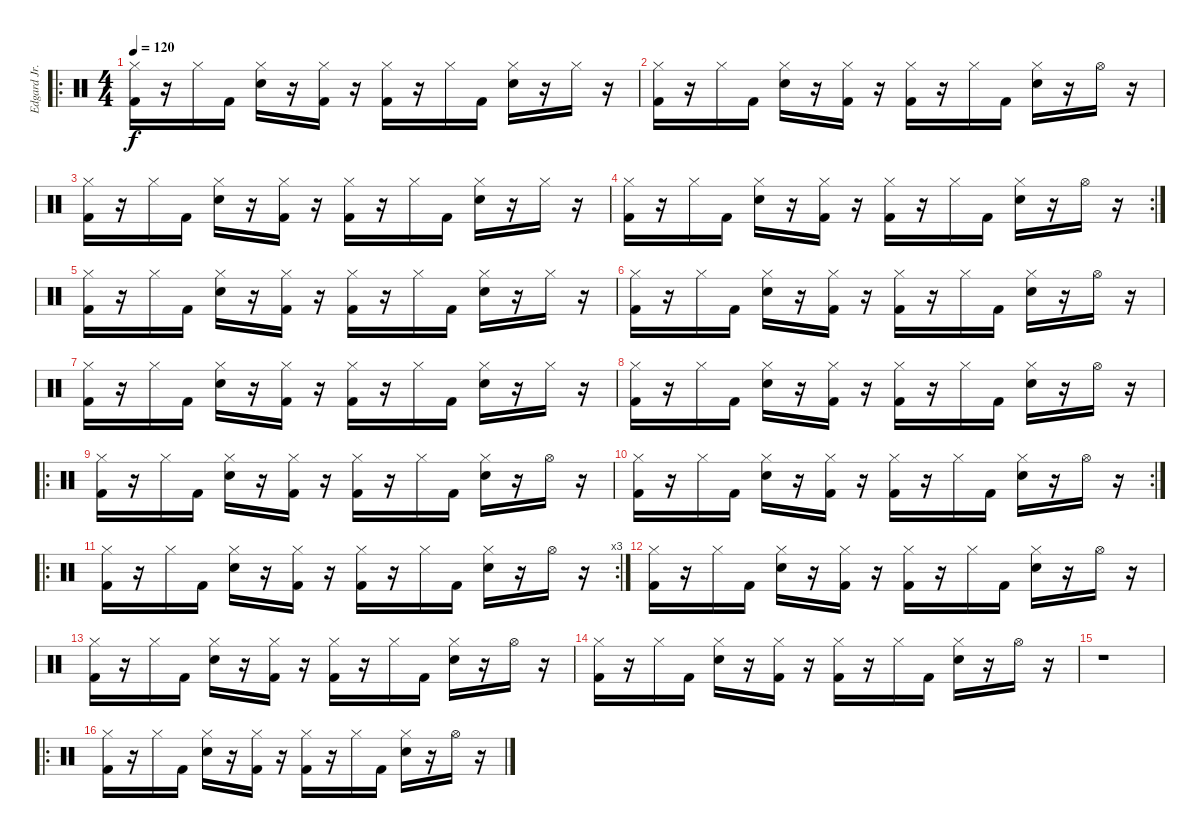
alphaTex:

\track ("Edgard Jr. - ( Drum )" "Edgard Jr.") {instrument percussion}
\staff {score}
\articulation defaults
\ro
\ts (4 4)
\tempo 120
\clef neutral
\ks c
("Kick (hit) 2" "Hi-Hat (closed)").16{dy f} r.16 "Hi-Hat (closed)".16 "Kick (hit) 2".16 ("Electric Snare (hit)" "Hi-Hat (closed)").16 r.16 ("Kick (hit) 2" "Hi-Hat (closed)").16 r.16 ("Kick (hit) 2" "Hi-Hat (closed)").16 r.16 "Hi-Hat (closed)".16 "Kick (hit) 2".16 ("Electric Snare (hit)" "Hi-Hat (closed)").16 r.16 "Hi-Hat (closed)".16 r.16 |
("Hi-Hat (closed)" "Kick (hit) 2").16 r.16 "Hi-Hat (closed)".16 "Kick (hit) 2".16 ("Electric Snare (hit)" "Hi-Hat (closed)").16 r.16 ("Kick (hit) 2" "Hi-Hat (closed)").16 r.16 ("Kick (hit) 2" "Hi-Hat (closed)").16 r.16 "Hi-Hat (closed)".16 "Kick (hit) 2".16 ("Electric Snare (hit)" "Hi-Hat (closed)").16 r.16 "Hi-Hat (open)".16 r.16 |
("Kick (hit) 2" "Hi-Hat (closed)").16 r.16 "Hi-Hat (closed)".16 "Kick (hit) 2".16 ("Electric Snare (hit)" "Hi-Hat (closed)").16 r.16 ("Kick (hit) 2" "Hi-Hat (closed)").16 r.16 ("Kick (hit) 2" "Hi-Hat (closed)").16 r.16 "Hi-Hat (closed)".16 "Kick (hit) 2".16 ("Electric Snare (hit)" "Hi-Hat (closed)").16 r.16 "Hi-Hat (closed)".16 r.16 |
\rc 2
("Hi-Hat (closed)" "Kick (hit) 2").16 r.16 "Hi-Hat (closed)".16 "Kick (hit) 2".16 ("Electric Snare (hit)" "Hi-Hat (closed)").16 r.16 ("Kick (hit) 2" "Hi-Hat (closed)").16 r.16 ("Kick (hit) 2" "Hi-Hat (closed)").16 r.16 "Hi-Hat (closed)".16 "Kick (hit) 2".16 ("Electric Snare (hit)" "Hi-Hat (closed)").16 r.16 "Hi-Hat (open)".16 r.16 |
("Kick (hit) 2" "Hi-Hat (closed)").16 r.16 "Hi-Hat (closed)".16 "Kick (hit) 2".16 ("Electric Snare (hit)" "Hi-Hat (closed)").16 r.16 ("Kick (hit) 2" "Hi-Hat (closed)").16 r.16 ("Kick (hit) 2" "Hi-Hat (closed)").16 r.16 "Hi-Hat (closed)".16 "Kick (hit) 2".16 ("Electric Snare (hit)" "Hi-Hat (closed)").16 r.16 "Hi-Hat (closed)".16 r.16 |
("Hi-Hat (closed)" "Kick (hit) 2").16 r.16 "Hi-Hat (closed)".16 "Kick (hit) 2".16 ("Electric Snare (hit)" "Hi-Hat (closed)").16 r.16 ("Kick (hit) 2" "Hi-Hat (closed)").16 r.16 ("Kick (hit) 2" "Hi-Hat (closed)").16 r.16 "Hi-Hat (closed)".16 "Kick (hit) 2".16 ("Electric Snare (hit)" "Hi-Hat (closed)").16 r.16 "Hi-Hat (open)".16 r.16 |
("Kick (hit) 2" "Hi-Hat (closed)").16 r.16 "Hi-Hat (closed)".16 "Kick (hit) 2".16 ("Electric Snare (hit)" "Hi-Hat (closed)").16 r.16 ("Kick (hit) 2" "Hi-Hat (closed)").16 r.16 ("Kick (hit) 2" "Hi-Hat (closed)").16 r.16 "Hi-Hat (closed)".16 "Kick (hit) 2".16 ("Electric Snare (hit)" "Hi-Hat (closed)").16 r.16 "Hi-Hat (closed)".16 r.16 |
("Hi-Hat (closed)" "Kick (hit) 2").16 r.16 "Hi-Hat (closed)".16 "Kick (hit) 2".16 ("Electric Snare (hit)" "Hi-Hat (closed)").16 r.16 ("Kick (hit) 2" "Hi-Hat (closed)").16 r.16 ("Kick (hit) 2" "Hi-Hat (closed)").16 r.16 "Hi-Hat (closed)".16 "Kick (hit) 2".16 ("Electric Snare (hit)" "Hi-Hat (closed)").16 r.16 "Hi-Hat (open)".16 r.16 |
\ro
("Hi-Hat (closed)" "Kick (hit) 2").16 r.16 "Hi-Hat (closed)".16 "Kick (hit) 2".16 ("Electric Snare (hit)" "Hi-Hat (closed)").16 r.16 ("Kick (hit) 2" "Hi-Hat (closed)").16 r.16 ("Kick (hit) 2" "Hi-Hat (closed)").16 r.16 "Hi-Hat (closed)".16 "Kick (hit) 2".16 ("Electric Snare (hit)" "Hi-Hat (closed)").16 r.16 "Hi-Hat (open)".16 r.16 |
\rc 2
("Hi-Hat (closed)" "Kick (hit) 2").16 r.16 "Hi-Hat (closed)".16 "Kick (hit) 2".16 ("Electric Snare (hit)" "Hi-Hat (closed)").16 r.16 ("Kick (hit) 2" "Hi-Hat (closed)").16 r.16 ("Kick (hit) 2" "Hi-Hat (closed)").16 r.16 "Hi-Hat (closed)".16 "Kick (hit) 2".16 ("Electric Snare (hit)" "Hi-Hat (closed)").16 r.16 "Hi-Hat (open)".16 r.16 |
\ro
\rc 3
("Hi-Hat (closed)" "Kick (hit) 2").16 r.16 "Hi-Hat (closed)".16 "Kick (hit) 2".16 ("Electric Snare (hit)" "Hi-Hat (closed)").16 r.16 ("Kick (hit) 2" "Hi-Hat (closed)").16 r.16 ("Kick (hit) 2" "Hi-Hat (closed)").16 r.16 "Hi-Hat (closed)".16 "Kick (hit) 2".16 ("Electric Snare (hit)" "Hi-Hat (closed)").16 r.16 "Hi-Hat (open)".16 r.16 |
("Hi-Hat (closed)" "Kick (hit) 2").16 r.16 "Hi-Hat (closed)".16 "Kick (hit) 2".16 ("Electric Snare (hit)" "Hi-Hat (closed)").16 r.16 ("Kick (hit) 2" "Hi-Hat (closed)").16 r.16 ("Kick (hit) 2" "Hi-Hat (closed)").16 r.16 "Hi-Hat (closed)".16 "Kick (hit) 2".16 ("Electric Snare (hit)" "Hi-Hat (closed)").16 r.16 "Hi-Hat (open)".16 r.16 |
("Hi-Hat (closed)" "Kick (hit) 2").16 r.16 "Hi-Hat (closed)".16 "Kick (hit) 2".16 ("Electric Snare (hit)" "Hi-Hat (closed)").16 r.16 ("Kick (hit) 2" "Hi-Hat (closed)").16 r.16 ("Kick (hit) 2" "Hi-Hat (closed)").16 r.16 "Hi-Hat (closed)".16 "Kick (hit) 2".16 ("Electric Snare (hit)" "Hi-Hat (closed)").16 r.16 "Hi-Hat (open)".16 r.16 |
("Hi-Hat (closed)" "Kick (hit) 2").16 r.16 "Hi-Hat (closed)".16 "Kick (hit) 2".16 ("Electric Snare (hit)" "Hi-Hat (closed)").16 r.16 ("Kick (hit) 2" "Hi-Hat (closed)").16 r.16 ("Kick (hit) 2" "Hi-Hat (closed)").16 r.16 "Hi-Hat (closed)".16 "Kick (hit) 2".16 ("Electric Snare (hit)" "Hi-Hat (closed)").16 r.16 "Hi-Hat (open)".16 r.16 |
r.1 |
\ro
("Hi-Hat (closed)" "Kick (hit) 2").16 r.16 "Hi-Hat (closed)".16 "Kick (hit) 2".16 ("Electric Snare (hit)" "Hi-Hat (closed)").16 r.16 ("Kick (hit) 2" "Hi-Hat (closed)").16 r.16 ("Kick (hit) 2" "Hi-Hat (closed)").16 r.16 "Hi-Hat (closed)".16 "Kick (hit) 2".16 ("Electric Snare (hit)" "Hi-Hat (closed)").16 r.16 "Hi-Hat (open)".16 r.16
